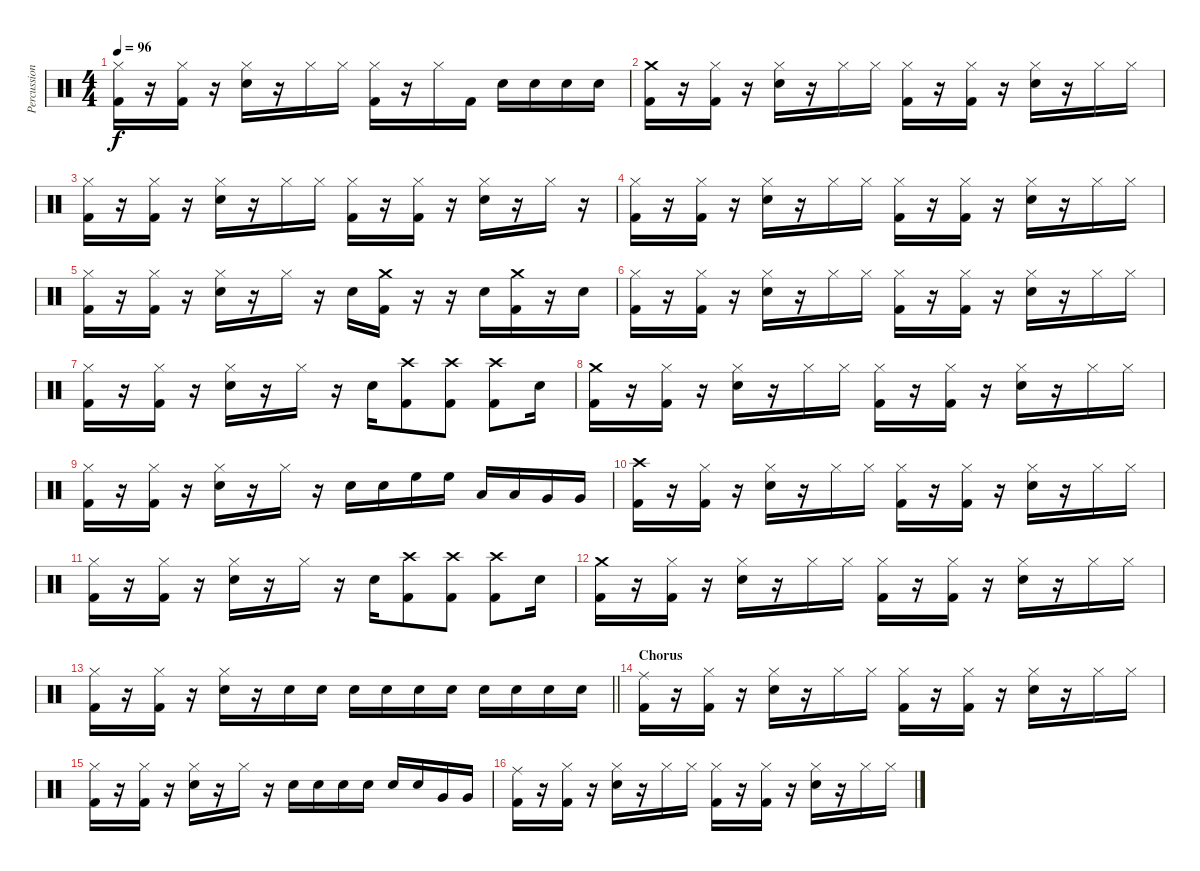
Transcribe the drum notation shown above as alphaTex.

\track ("Percussion" "Percussion") {instrument percussion}
\staff {score}
\articulation defaults
\ts (4 4)
\tempo 96
\clef neutral
\ks c
("Hi-Hat (closed)" "Kick (hit) 2").16{dy f} r.16 ("Hi-Hat (closed)" "Kick (hit) 2").16 r.16 ("Hi-Hat (closed)" "Snare (hit) 2").16 r.16 "Hi-Hat (closed)".16 "Hi-Hat (closed)".16 ("Hi-Hat (closed)" "Kick (hit) 2").16 r.16 "Hi-Hat (closed)".16 "Kick (hit) 2".16 "Snare (hit) 2".16 "Snare (hit) 2".16 "Snare (hit) 2".16 "Snare (hit) 2".16 |
("Crash medium (hit)" "Kick (hit) 2").16 r.16 ("Hi-Hat (closed)" "Kick (hit) 2").16 r.16 ("Hi-Hat (closed)" "Snare (hit) 2").16 r.16 "Hi-Hat (closed)".16 "Hi-Hat (closed)".16 ("Hi-Hat (closed)" "Kick (hit) 2").16 r.16 ("Hi-Hat (closed)" "Kick (hit) 2").16 r.16 ("Hi-Hat (closed)" "Snare (hit) 2").16 r.16 "Hi-Hat (closed)".16 "Hi-Hat (closed)".16 |
("Hi-Hat (closed)" "Kick (hit) 2").16 r.16 ("Hi-Hat (closed)" "Kick (hit) 2").16 r.16 ("Hi-Hat (closed)" "Snare (hit) 2").16 r.16 "Hi-Hat (closed)".16 "Hi-Hat (closed)".16 ("Hi-Hat (closed)" "Kick (hit) 2").16 r.16 ("Hi-Hat (closed)" "Kick (hit) 2").16 r.16 ("Hi-Hat (closed)" "Snare (hit) 2").16 r.16 "Hi-Hat (closed)".16 r.16 |
("Hi-Hat (closed)" "Kick (hit) 2").16 r.16 ("Hi-Hat (closed)" "Kick (hit) 2").16 r.16 ("Hi-Hat (closed)" "Snare (hit) 2").16 r.16 "Hi-Hat (closed)".16 "Hi-Hat (closed)".16 ("Hi-Hat (closed)" "Kick (hit) 2").16 r.16 ("Hi-Hat (closed)" "Kick (hit) 2").16 r.16 ("Hi-Hat (closed)" "Snare (hit) 2").16 r.16 "Hi-Hat (closed)".16 "Hi-Hat (closed)".16 |
("Hi-Hat (closed)" "Kick (hit) 2").16 r.16 ("Hi-Hat (closed)" "Kick (hit) 2").16 r.16 ("Hi-Hat (closed)" "Snare (hit) 2").16 r.16 "Hi-Hat (closed)".16 r.16 "Snare (hit) 2".16 ("Crash medium (hit)" "Kick (hit) 2").16 r.16 r.16 "Snare (hit) 2".16 ("Crash medium (hit)" "Kick (hit) 2").16 r.16 "Snare (hit) 2".16 |
("Hi-Hat (closed)" "Kick (hit) 2").16 r.16 ("Hi-Hat (closed)" "Kick (hit) 2").16 r.16 ("Hi-Hat (closed)" "Snare (hit) 2").16 r.16 "Hi-Hat (closed)".16 "Hi-Hat (closed)".16 ("Hi-Hat (closed)" "Kick (hit) 2").16 r.16 ("Hi-Hat (closed)" "Kick (hit) 2").16 r.16 ("Hi-Hat (closed)" "Snare (hit) 2").16 r.16 "Hi-Hat (closed)".16 "Hi-Hat (closed)".16 |
("Hi-Hat (closed)" "Kick (hit) 2").16 r.16 ("Hi-Hat (closed)" "Kick (hit) 2").16 r.16 ("Hi-Hat (closed)" "Snare (hit) 2").16 r.16 "Hi-Hat (closed)".16 r.16 "Snare (hit) 2".16 ("Crash high (hit)" "Kick (hit) 2").8 ("Crash high (hit)" "Kick (hit) 2").8 ("Crash high (hit)" "Kick (hit) 2").8 "Snare (hit) 2".16 |
("Crash medium (hit)" "Kick (hit) 2").16 r.16 ("Hi-Hat (closed)" "Kick (hit) 2").16 r.16 ("Hi-Hat (closed)" "Snare (hit) 2").16 r.16 "Hi-Hat (closed)".16 "Hi-Hat (closed)".16 ("Hi-Hat (closed)" "Kick (hit) 2").16 r.16 ("Hi-Hat (closed)" "Kick (hit) 2").16 r.16 ("Hi-Hat (closed)" "Snare (hit) 2").16 r.16 "Hi-Hat (closed)".16 "Hi-Hat (closed)".16 |
("Hi-Hat (closed)" "Kick (hit) 2").16 r.16 ("Hi-Hat (closed)" "Kick (hit) 2").16 r.16 ("Hi-Hat (closed)" "Snare (hit) 2").16 r.16 "Hi-Hat (closed)".16 r.16 "Snare (hit) 2".16 "Snare (hit) 2".16 "High Floor Tom (hit)".16 "High Floor Tom (hit)".16 "Low Tom (hit)".16 "Low Tom (hit)".16 "Very Low Tom (hit)".16 "Very Low Tom (hit)".16 |
("Crash high (hit)" "Kick (hit) 2").16 r.16 ("Hi-Hat (closed)" "Kick (hit) 2").16 r.16 ("Hi-Hat (closed)" "Snare (hit) 2").16 r.16 "Hi-Hat (closed)".16 "Hi-Hat (closed)".16 ("Hi-Hat (closed)" "Kick (hit) 2").16 r.16 ("Hi-Hat (closed)" "Kick (hit) 2").16 r.16 ("Hi-Hat (closed)" "Snare (hit) 2").16 r.16 "Hi-Hat (closed)".16 "Hi-Hat (closed)".16 |
("Hi-Hat (closed)" "Kick (hit) 2").16 r.16 ("Hi-Hat (closed)" "Kick (hit) 2").16 r.16 ("Hi-Hat (closed)" "Snare (hit) 2").16 r.16 "Hi-Hat (closed)".16 r.16 "Snare (hit) 2".16 ("Crash high (hit)" "Kick (hit) 2").8 ("Crash high (hit)" "Kick (hit) 2").8 ("Crash high (hit)" "Kick (hit) 2").8 "Snare (hit) 2".16 |
("Crash medium (hit)" "Kick (hit) 2").16 r.16 ("Hi-Hat (closed)" "Kick (hit) 2").16 r.16 ("Hi-Hat (closed)" "Snare (hit) 2").16 r.16 "Hi-Hat (closed)".16 "Hi-Hat (closed)".16 ("Hi-Hat (closed)" "Kick (hit) 2").16 r.16 ("Hi-Hat (closed)" "Kick (hit) 2").16 r.16 ("Hi-Hat (closed)" "Snare (hit) 2").16 r.16 "Hi-Hat (closed)".16 "Hi-Hat (closed)".16 |
\barLineRight lightlight
("Hi-Hat (closed)" "Kick (hit) 2").16 r.16 ("Hi-Hat (closed)" "Kick (hit) 2").16 r.16 ("Hi-Hat (closed)" "Snare (hit) 2").16 r.16 "Snare (hit) 2".16 "Snare (hit) 2".16 "Snare (hit) 2".16 "Snare (hit) 2".16 "Snare (hit) 2".16 "Snare (hit) 2".16 "Snare (hit) 2".16 "Snare (hit) 2".16 "Snare (hit) 2".16 "Snare (hit) 2".16 |
\section ("" "Chorus")
("Ride (middle)" "Kick (hit) 2").16 r.16 ("Hi-Hat (closed)" "Kick (hit) 2").16 r.16 ("Hi-Hat (closed)" "Snare (hit) 2").16 r.16 "Hi-Hat (closed)".16 "Hi-Hat (closed)".16 ("Hi-Hat (closed)" "Kick (hit) 2").16 r.16 ("Hi-Hat (closed)" "Kick (hit) 2").16 r.16 ("Hi-Hat (closed)" "Snare (hit) 2").16 r.16 "Hi-Hat (closed)".16 "Hi-Hat (closed)".16 |
("Hi-Hat (closed)" "Kick (hit) 2").16 r.16 ("Hi-Hat (closed)" "Kick (hit) 2").16 r.16 ("Hi-Hat (closed)" "Snare (hit) 2").16 r.16 "Hi-Hat (closed)".16 r.16 "Snare (hit) 2".16 "Snare (hit) 2".16 "Snare (hit) 2".16 "Snare (hit) 2".16 "Snare (hit) 2".16 "Snare (hit) 2".16 "Very Low Tom (hit)".16 "Very Low Tom (hit)".16 |
("Ride (middle)" "Kick (hit) 2").16 r.16 ("Hi-Hat (closed)" "Kick (hit) 2").16 r.16 ("Hi-Hat (closed)" "Snare (hit) 2").16 r.16 "Hi-Hat (closed)".16 "Hi-Hat (closed)".16 ("Hi-Hat (closed)" "Kick (hit) 2").16 r.16 ("Hi-Hat (closed)" "Kick (hit) 2").16 r.16 ("Hi-Hat (closed)" "Snare (hit) 2").16 r.16 "Hi-Hat (closed)".16 "Hi-Hat (closed)".16
